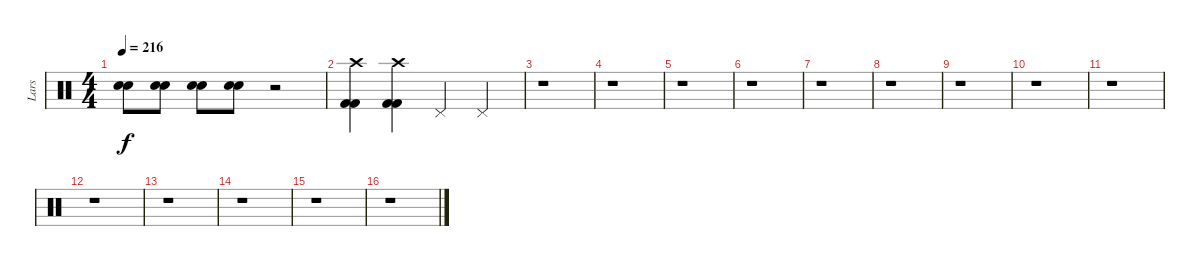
\track ("Lars" "Lars") {instrument percussion}
\staff {score}
\articulation defaults
\ts (4 4)
\tempo 216
\clef neutral
\ks c
("Electric Snare (hit)" "Electric Snare (hit)").8{dy f} ("Electric Snare (hit)" "Electric Snare (hit)").8 ("Electric Snare (hit)" "Electric Snare (hit)").8 ("Electric Snare (hit)" "Electric Snare (hit)").8 r.2 |
("Crash high (hit)" "Kick (hit) 2" "Kick (hit) 2").4 ("Crash high (hit)" "Kick (hit) 2" "Kick (hit) 2").4 "Pedal Hi-Hat (hit)".4 "Pedal Hi-Hat (hit)".4 |
r.1 |
r.1 |
r.1 |
r.1 |
r.1 |
r.1 |
r.1 |
r.1 |
r.1 |
r.1 |
r.1 |
r.1 |
r.1 |
r.1
